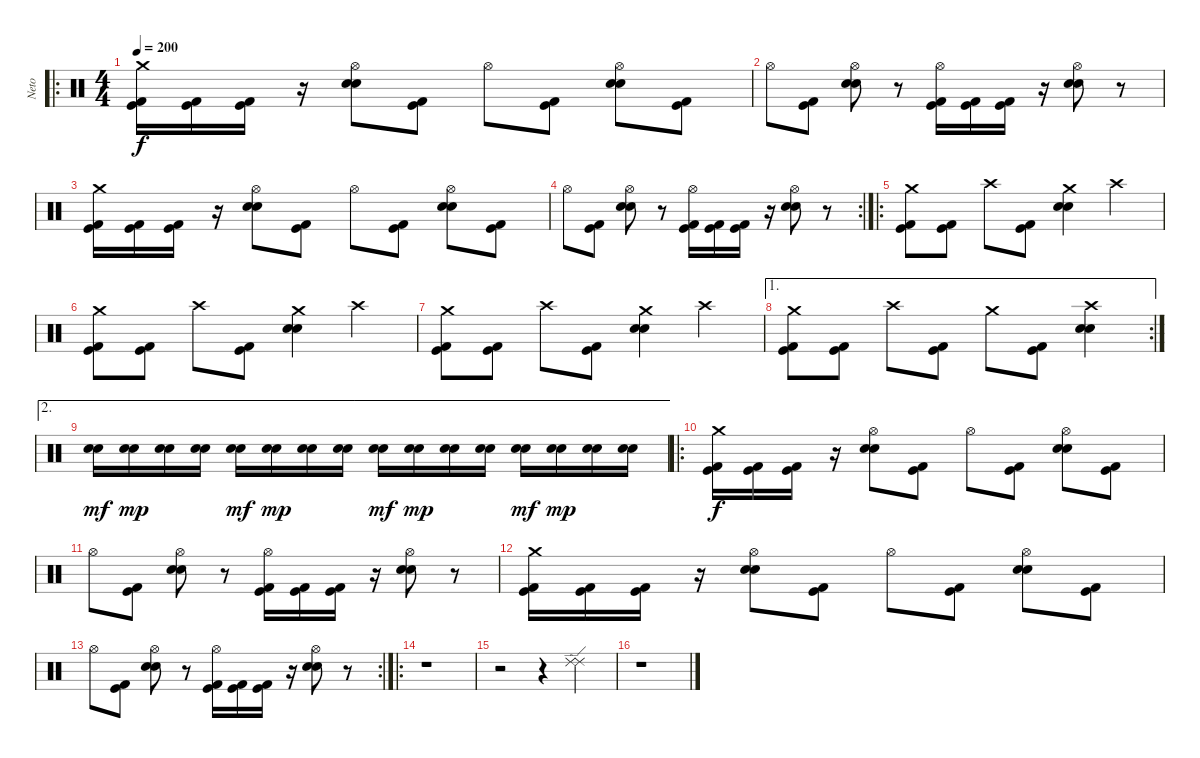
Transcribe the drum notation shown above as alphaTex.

\track ("Neto" "Neto") {instrument percussion}
\staff {score}
\articulation defaults
\ro
\ts (4 4)
\tempo 200
\clef neutral
\ks c
("Crash medium (hit)" "Kick (hit)" "Kick (hit) 2").16{dy f} ("Kick (hit)" "Kick (hit) 2").16 ("Kick (hit)" "Kick (hit) 2").16 r.16 ("Hi-Hat (open)" "Snare (hit) 2" "Snare (hit) 2").8 ("Kick (hit) 2" "Kick (hit)").8 "Hi-Hat (open)".8 ("Kick (hit)" "Kick (hit) 2").8 ("Hi-Hat (open)" "Snare (hit) 2" "Snare (hit) 2").8 ("Kick (hit) 2" "Kick (hit)").8 |
"Hi-Hat (open)".8 ("Kick (hit)" "Kick (hit) 2").8 ("Hi-Hat (open)" "Snare (hit) 2" "Snare (hit) 2").8 r.8 ("Hi-Hat (open)" "Kick (hit)" "Kick (hit) 2").16 ("Kick (hit)" "Kick (hit) 2").16 ("Kick (hit)" "Kick (hit) 2").16 r.16 ("Hi-Hat (open)" "Snare (hit) 2" "Snare (hit) 2").8 r.8 |
("Crash medium (hit)" "Kick (hit)" "Kick (hit) 2").16 ("Kick (hit)" "Kick (hit) 2").16 ("Kick (hit)" "Kick (hit) 2").16 r.16 ("Hi-Hat (open)" "Snare (hit) 2" "Snare (hit) 2").8 ("Kick (hit) 2" "Kick (hit)").8 "Hi-Hat (open)".8 ("Kick (hit)" "Kick (hit) 2").8 ("Hi-Hat (open)" "Snare (hit) 2" "Snare (hit) 2").8 ("Kick (hit) 2" "Kick (hit)").8 |
\rc 2 "Hi-Hat (open)".8
("Kick (hit)" "Kick (hit) 2").8 ("Hi-Hat (open)" "Snare (hit) 2" "Snare (hit) 2").8 r.8 ("Hi-Hat (open)" "Kick (hit)" "Kick (hit) 2").16 ("Kick (hit)" "Kick (hit) 2").16 ("Kick (hit)" "Kick (hit) 2").16 r.16 ("Hi-Hat (open)" "Snare (hit) 2" "Snare (hit) 2").8 r.8 |
\ro
("Crash medium (hit)" "Kick (hit)" "Kick (hit) 2").8 ("Kick (hit)" "Kick (hit) 2").8 "Crash high (hit)".8 ("Kick (hit)" "Kick (hit) 2").8 ("Crash medium (hit)" "Snare (hit) 2" "Snare (hit) 2").4 "Crash high (hit)".4 |
("Crash medium (hit)" "Kick (hit)" "Kick (hit) 2").8 ("Kick (hit)" "Kick (hit) 2").8 "Crash high (hit)".8 ("Kick (hit)" "Kick (hit) 2").8 ("Crash medium (hit)" "Snare (hit) 2" "Snare (hit) 2").4 "Crash high (hit)".4 |
("Crash medium (hit)" "Kick (hit)" "Kick (hit) 2").8 ("Kick (hit)" "Kick (hit) 2").8 "Crash high (hit)".8 ("Kick (hit)" "Kick (hit) 2").8 ("Crash medium (hit)" "Snare (hit) 2" "Snare (hit) 2").4 "Crash high (hit)".4 |
\ae 1
\rc 2
("Crash medium (hit)" "Kick (hit)" "Kick (hit) 2").8 ("Kick (hit)" "Kick (hit) 2").8 "Crash high (hit)".8 ("Kick (hit)" "Kick (hit) 2").8 "Crash medium (hit)".8 ("Kick (hit)" "Kick (hit) 2").8 ("Crash high (hit)" "Snare (hit) 2" "Snare (hit) 2").4 |
\ae 2
("Snare (hit) 2" "Snare (hit) 2").16{dy mf} ("Snare (hit) 2" "Snare (hit) 2").16{dy mp} ("Snare (hit) 2" "Snare (hit) 2").16 ("Snare (hit) 2" "Snare (hit) 2").16 ("Snare (hit) 2" "Snare (hit) 2").16{dy mf} ("Snare (hit) 2" "Snare (hit) 2").16{dy mp} ("Snare (hit) 2" "Snare (hit) 2").16 ("Snare (hit) 2" "Snare (hit) 2").16 ("Snare (hit) 2" "Snare (hit) 2").16{dy mf} ("Snare (hit) 2" "Snare (hit) 2").16{dy mp} ("Snare (hit) 2" "Snare (hit) 2").16 ("Snare (hit) 2" "Snare (hit) 2").16 ("Snare (hit) 2" "Snare (hit) 2").16{dy mf} ("Snare (hit) 2" "Snare (hit) 2").16{dy mp} ("Snare (hit) 2" "Snare (hit) 2").16 ("Snare (hit) 2" "Snare (hit) 2").16 |
\ro
("Crash medium (hit)" "Kick (hit)" "Kick (hit) 2").16{dy f} ("Kick (hit)" "Kick (hit) 2").16 ("Kick (hit)" "Kick (hit) 2").16 r.16 ("Hi-Hat (open)" "Snare (hit) 2" "Snare (hit) 2").8 ("Kick (hit) 2" "Kick (hit)").8 "Hi-Hat (open)".8 ("Kick (hit)" "Kick (hit) 2").8 ("Hi-Hat (open)" "Snare (hit) 2" "Snare (hit) 2").8 ("Kick (hit) 2" "Kick (hit)").8 |
"Hi-Hat (open)".8 ("Kick (hit)" "Kick (hit) 2").8 ("Hi-Hat (open)" "Snare (hit) 2" "Snare (hit) 2").8 r.8 ("Hi-Hat (open)" "Kick (hit)" "Kick (hit) 2").16 ("Kick (hit)" "Kick (hit) 2").16 ("Kick (hit)" "Kick (hit) 2").16 r.16 ("Hi-Hat (open)" "Snare (hit) 2" "Snare (hit) 2").8 r.8 |
("Crash medium (hit)" "Kick (hit)" "Kick (hit) 2").16 ("Kick (hit)" "Kick (hit) 2").16 ("Kick (hit)" "Kick (hit) 2").16 r.16 ("Hi-Hat (open)" "Snare (hit) 2" "Snare (hit) 2").8 ("Kick (hit) 2" "Kick (hit)").8 "Hi-Hat (open)".8 ("Kick (hit)" "Kick (hit) 2").8 ("Hi-Hat (open)" "Snare (hit) 2" "Snare (hit) 2").8 ("Kick (hit) 2" "Kick (hit)").8 |
\rc 2 "Hi-Hat (open)".8
("Kick (hit)" "Kick (hit) 2").8 ("Hi-Hat (open)" "Snare (hit) 2" "Snare (hit) 2").8 r.8 ("Hi-Hat (open)" "Kick (hit)" "Kick (hit) 2").16 ("Kick (hit)" "Kick (hit) 2").16 ("Kick (hit)" "Kick (hit) 2").16 r.16 ("Hi-Hat (open)" "Snare (hit) 2" "Snare (hit) 2").8 r.8 |
\ro
r.1 |
r.2 r.4 ("Ride (edge) 2" "Ride (edge) 2").4 |
r.1
